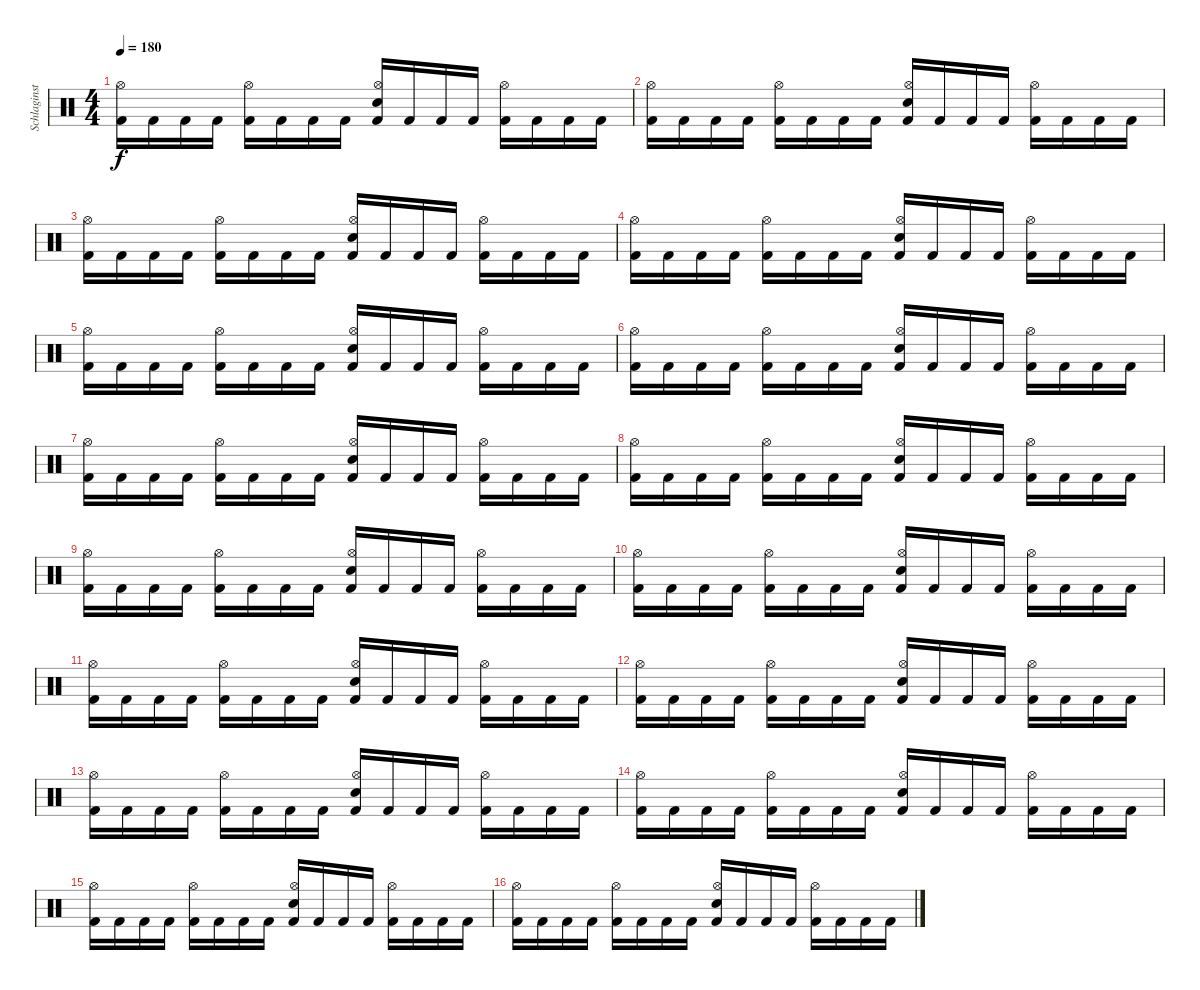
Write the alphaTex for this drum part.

\track ("Schlaginstrumente - Auswahl" "Schlaginst") {instrument percussion}
\staff {score}
\articulation defaults
\ts (4 4)
\tempo 180
\clef neutral
\ks c
("Kick (hit) 2" "Hi-Hat (open)").16{dy f} "Kick (hit) 2".16 "Kick (hit) 2".16 "Kick (hit) 2".16 ("Kick (hit) 2" "Hi-Hat (open)").16 "Kick (hit) 2".16 "Kick (hit) 2".16 "Kick (hit) 2".16 ("Snare (hit) 2" "Kick (hit) 2" "Hi-Hat (open)").16 "Kick (hit) 2".16 "Kick (hit) 2".16 "Kick (hit) 2".16 ("Kick (hit) 2" "Hi-Hat (open)").16 "Kick (hit) 2".16 "Kick (hit) 2".16 "Kick (hit) 2".16 |
("Kick (hit) 2" "Hi-Hat (open)").16 "Kick (hit) 2".16 "Kick (hit) 2".16 "Kick (hit) 2".16 ("Kick (hit) 2" "Hi-Hat (open)").16 "Kick (hit) 2".16 "Kick (hit) 2".16 "Kick (hit) 2".16 ("Snare (hit) 2" "Kick (hit) 2" "Hi-Hat (open)").16 "Kick (hit) 2".16 "Kick (hit) 2".16 "Kick (hit) 2".16 ("Kick (hit) 2" "Hi-Hat (open)").16 "Kick (hit) 2".16 "Kick (hit) 2".16 "Kick (hit) 2".16 |
("Kick (hit) 2" "Hi-Hat (open)").16 "Kick (hit) 2".16 "Kick (hit) 2".16 "Kick (hit) 2".16 ("Kick (hit) 2" "Hi-Hat (open)").16 "Kick (hit) 2".16 "Kick (hit) 2".16 "Kick (hit) 2".16 ("Snare (hit) 2" "Kick (hit) 2" "Hi-Hat (open)").16 "Kick (hit) 2".16 "Kick (hit) 2".16 "Kick (hit) 2".16 ("Kick (hit) 2" "Hi-Hat (open)").16 "Kick (hit) 2".16 "Kick (hit) 2".16 "Kick (hit) 2".16 |
("Kick (hit) 2" "Hi-Hat (open)").16 "Kick (hit) 2".16 "Kick (hit) 2".16 "Kick (hit) 2".16 ("Kick (hit) 2" "Hi-Hat (open)").16 "Kick (hit) 2".16 "Kick (hit) 2".16 "Kick (hit) 2".16 ("Snare (hit) 2" "Kick (hit) 2" "Hi-Hat (open)").16 "Kick (hit) 2".16 "Kick (hit) 2".16 "Kick (hit) 2".16 ("Kick (hit) 2" "Hi-Hat (open)").16 "Kick (hit) 2".16 "Kick (hit) 2".16 "Kick (hit) 2".16 |
("Kick (hit) 2" "Hi-Hat (open)").16 "Kick (hit) 2".16 "Kick (hit) 2".16 "Kick (hit) 2".16 ("Kick (hit) 2" "Hi-Hat (open)").16 "Kick (hit) 2".16 "Kick (hit) 2".16 "Kick (hit) 2".16 ("Snare (hit) 2" "Kick (hit) 2" "Hi-Hat (open)").16 "Kick (hit) 2".16 "Kick (hit) 2".16 "Kick (hit) 2".16 ("Kick (hit) 2" "Hi-Hat (open)").16 "Kick (hit) 2".16 "Kick (hit) 2".16 "Kick (hit) 2".16 |
("Kick (hit) 2" "Hi-Hat (open)").16 "Kick (hit) 2".16 "Kick (hit) 2".16 "Kick (hit) 2".16 ("Kick (hit) 2" "Hi-Hat (open)").16 "Kick (hit) 2".16 "Kick (hit) 2".16 "Kick (hit) 2".16 ("Snare (hit) 2" "Kick (hit) 2" "Hi-Hat (open)").16 "Kick (hit) 2".16 "Kick (hit) 2".16 "Kick (hit) 2".16 ("Kick (hit) 2" "Hi-Hat (open)").16 "Kick (hit) 2".16 "Kick (hit) 2".16 "Kick (hit) 2".16 |
("Kick (hit) 2" "Hi-Hat (open)").16 "Kick (hit) 2".16 "Kick (hit) 2".16 "Kick (hit) 2".16 ("Kick (hit) 2" "Hi-Hat (open)").16 "Kick (hit) 2".16 "Kick (hit) 2".16 "Kick (hit) 2".16 ("Snare (hit) 2" "Kick (hit) 2" "Hi-Hat (open)").16 "Kick (hit) 2".16 "Kick (hit) 2".16 "Kick (hit) 2".16 ("Kick (hit) 2" "Hi-Hat (open)").16 "Kick (hit) 2".16 "Kick (hit) 2".16 "Kick (hit) 2".16 |
("Kick (hit) 2" "Hi-Hat (open)").16 "Kick (hit) 2".16 "Kick (hit) 2".16 "Kick (hit) 2".16 ("Kick (hit) 2" "Hi-Hat (open)").16 "Kick (hit) 2".16 "Kick (hit) 2".16 "Kick (hit) 2".16 ("Snare (hit) 2" "Kick (hit) 2" "Hi-Hat (open)").16 "Kick (hit) 2".16 "Kick (hit) 2".16 "Kick (hit) 2".16 ("Kick (hit) 2" "Hi-Hat (open)").16 "Kick (hit) 2".16 "Kick (hit) 2".16 "Kick (hit) 2".16 |
("Kick (hit) 2" "Hi-Hat (open)").16 "Kick (hit) 2".16 "Kick (hit) 2".16 "Kick (hit) 2".16 ("Kick (hit) 2" "Hi-Hat (open)").16 "Kick (hit) 2".16 "Kick (hit) 2".16 "Kick (hit) 2".16 ("Snare (hit) 2" "Kick (hit) 2" "Hi-Hat (open)").16 "Kick (hit) 2".16 "Kick (hit) 2".16 "Kick (hit) 2".16 ("Kick (hit) 2" "Hi-Hat (open)").16 "Kick (hit) 2".16 "Kick (hit) 2".16 "Kick (hit) 2".16 |
("Kick (hit) 2" "Hi-Hat (open)").16 "Kick (hit) 2".16 "Kick (hit) 2".16 "Kick (hit) 2".16 ("Kick (hit) 2" "Hi-Hat (open)").16 "Kick (hit) 2".16 "Kick (hit) 2".16 "Kick (hit) 2".16 ("Snare (hit) 2" "Kick (hit) 2" "Hi-Hat (open)").16 "Kick (hit) 2".16 "Kick (hit) 2".16 "Kick (hit) 2".16 ("Kick (hit) 2" "Hi-Hat (open)").16 "Kick (hit) 2".16 "Kick (hit) 2".16 "Kick (hit) 2".16 |
("Kick (hit) 2" "Hi-Hat (open)").16 "Kick (hit) 2".16 "Kick (hit) 2".16 "Kick (hit) 2".16 ("Kick (hit) 2" "Hi-Hat (open)").16 "Kick (hit) 2".16 "Kick (hit) 2".16 "Kick (hit) 2".16 ("Snare (hit) 2" "Kick (hit) 2" "Hi-Hat (open)").16 "Kick (hit) 2".16 "Kick (hit) 2".16 "Kick (hit) 2".16 ("Kick (hit) 2" "Hi-Hat (open)").16 "Kick (hit) 2".16 "Kick (hit) 2".16 "Kick (hit) 2".16 |
("Kick (hit) 2" "Hi-Hat (open)").16 "Kick (hit) 2".16 "Kick (hit) 2".16 "Kick (hit) 2".16 ("Kick (hit) 2" "Hi-Hat (open)").16 "Kick (hit) 2".16 "Kick (hit) 2".16 "Kick (hit) 2".16 ("Snare (hit) 2" "Kick (hit) 2" "Hi-Hat (open)").16 "Kick (hit) 2".16 "Kick (hit) 2".16 "Kick (hit) 2".16 ("Kick (hit) 2" "Hi-Hat (open)").16 "Kick (hit) 2".16 "Kick (hit) 2".16 "Kick (hit) 2".16 |
("Kick (hit) 2" "Hi-Hat (open)").16 "Kick (hit) 2".16 "Kick (hit) 2".16 "Kick (hit) 2".16 ("Kick (hit) 2" "Hi-Hat (open)").16 "Kick (hit) 2".16 "Kick (hit) 2".16 "Kick (hit) 2".16 ("Snare (hit) 2" "Kick (hit) 2" "Hi-Hat (open)").16 "Kick (hit) 2".16 "Kick (hit) 2".16 "Kick (hit) 2".16 ("Kick (hit) 2" "Hi-Hat (open)").16 "Kick (hit) 2".16 "Kick (hit) 2".16 "Kick (hit) 2".16 |
("Kick (hit) 2" "Hi-Hat (open)").16 "Kick (hit) 2".16 "Kick (hit) 2".16 "Kick (hit) 2".16 ("Kick (hit) 2" "Hi-Hat (open)").16 "Kick (hit) 2".16 "Kick (hit) 2".16 "Kick (hit) 2".16 ("Snare (hit) 2" "Kick (hit) 2" "Hi-Hat (open)").16 "Kick (hit) 2".16 "Kick (hit) 2".16 "Kick (hit) 2".16 ("Kick (hit) 2" "Hi-Hat (open)").16 "Kick (hit) 2".16 "Kick (hit) 2".16 "Kick (hit) 2".16 |
("Kick (hit) 2" "Hi-Hat (open)").16 "Kick (hit) 2".16 "Kick (hit) 2".16 "Kick (hit) 2".16 ("Kick (hit) 2" "Hi-Hat (open)").16 "Kick (hit) 2".16 "Kick (hit) 2".16 "Kick (hit) 2".16 ("Snare (hit) 2" "Kick (hit) 2" "Hi-Hat (open)").16 "Kick (hit) 2".16 "Kick (hit) 2".16 "Kick (hit) 2".16 ("Kick (hit) 2" "Hi-Hat (open)").16 "Kick (hit) 2".16 "Kick (hit) 2".16 "Kick (hit) 2".16 |
("Kick (hit) 2" "Hi-Hat (open)").16 "Kick (hit) 2".16 "Kick (hit) 2".16 "Kick (hit) 2".16 ("Kick (hit) 2" "Hi-Hat (open)").16 "Kick (hit) 2".16 "Kick (hit) 2".16 "Kick (hit) 2".16 ("Snare (hit) 2" "Kick (hit) 2" "Hi-Hat (open)").16 "Kick (hit) 2".16 "Kick (hit) 2".16 "Kick (hit) 2".16 ("Kick (hit) 2" "Hi-Hat (open)").16 "Kick (hit) 2".16 "Kick (hit) 2".16 "Kick (hit) 2".16
